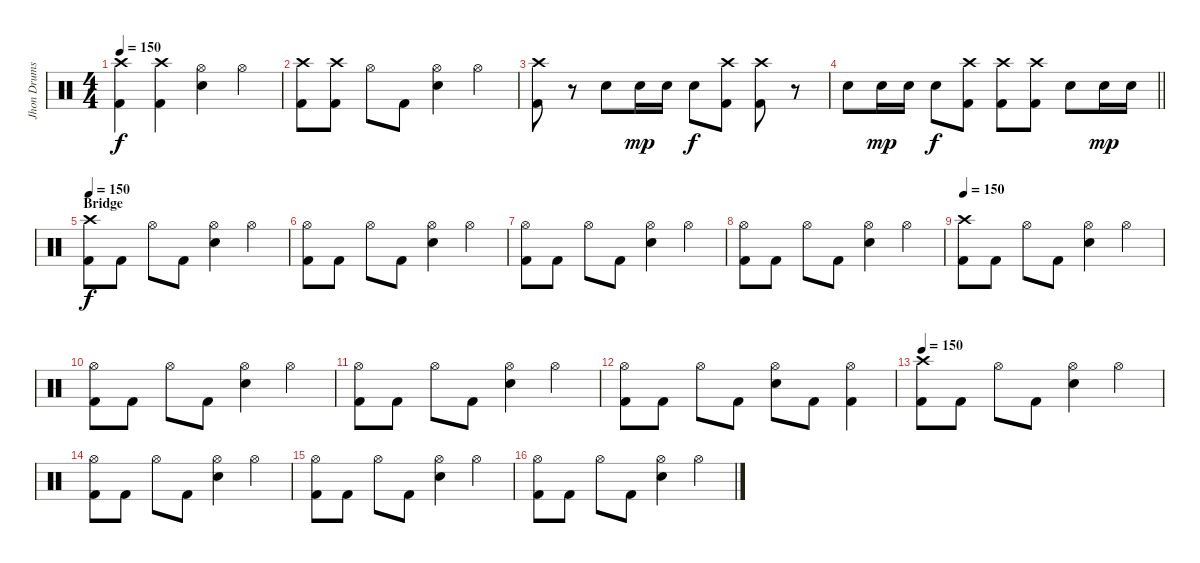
\track ("Jhon Drums" "Jhon Drums") {instrument percussion}
\staff {score}
\articulation defaults
\ts (4 4)
\tempo 150
\clef neutral
\ks c
("Crash high (hit)" "Kick (hit) 2").4{dy f} ("Crash high (hit)" "Kick (hit) 2").4 ("Hi-Hat (open)" "Electric Snare (hit)").4 "Hi-Hat (open)".4 |
("Crash high (hit)" "Kick (hit) 2").8 ("Crash high (hit)" "Kick (hit) 2").8 "Hi-Hat (open)".8 "Kick (hit) 2".8 ("Hi-Hat (open)" "Electric Snare (hit)").4 "Hi-Hat (open)".4 |
("Crash high (hit)" "Kick (hit) 2").8 r.8 "Electric Snare (hit)".8 "Electric Snare (hit)".16{dy mp} "Electric Snare (hit)".16 "Electric Snare (hit)".8{dy f} ("Crash high (hit)" "Kick (hit) 2").8 ("Crash high (hit)" "Kick (hit) 2").8 r.8 |
\barLineRight lightlight "Electric Snare (hit)".8 "Electric Snare (hit)".16{dy mp} "Electric Snare (hit)".16 "Electric Snare (hit)".8{dy f}
("Crash high (hit)" "Kick (hit) 2").8 ("Crash high (hit)" "Kick (hit) 2").8 ("Crash high (hit)" "Kick (hit) 2").8 "Electric Snare (hit)".8 "Electric Snare (hit)".16{dy mp} "Electric Snare (hit)".16 |
\section ("" "Bridge")
\tempo 150
("Crash high (hit)" "Kick (hit) 2").8{dy f} "Kick (hit) 2".8 "Hi-Hat (open)".8 "Kick (hit) 2".8 ("Hi-Hat (open)" "Electric Snare (hit)").4 "Hi-Hat (open)".4 |
("Hi-Hat (open)" "Kick (hit) 2").8 "Kick (hit) 2".8 "Hi-Hat (open)".8 "Kick (hit) 2".8 ("Hi-Hat (open)" "Electric Snare (hit)").4 "Hi-Hat (open)".4 |
("Hi-Hat (open)" "Kick (hit) 2").8 "Kick (hit) 2".8 "Hi-Hat (open)".8 "Kick (hit) 2".8 ("Hi-Hat (open)" "Electric Snare (hit)").4 "Hi-Hat (open)".4 |
("Hi-Hat (open)" "Kick (hit) 2").8 "Kick (hit) 2".8 "Hi-Hat (open)".8 "Kick (hit) 2".8 ("Hi-Hat (open)" "Electric Snare (hit)").4 "Hi-Hat (open)".4 |
\tempo 150
("Crash high (hit)" "Kick (hit) 2").8 "Kick (hit) 2".8 "Hi-Hat (open)".8 "Kick (hit) 2".8 ("Hi-Hat (open)" "Electric Snare (hit)").4 "Hi-Hat (open)".4 |
("Hi-Hat (open)" "Kick (hit) 2").8 "Kick (hit) 2".8 "Hi-Hat (open)".8 "Kick (hit) 2".8 ("Hi-Hat (open)" "Electric Snare (hit)").4 "Hi-Hat (open)".4 |
("Hi-Hat (open)" "Kick (hit) 2").8 "Kick (hit) 2".8 "Hi-Hat (open)".8 "Kick (hit) 2".8 ("Hi-Hat (open)" "Electric Snare (hit)").4 "Hi-Hat (open)".4 |
("Hi-Hat (open)" "Kick (hit) 2").8 "Kick (hit) 2".8 "Hi-Hat (open)".8 "Kick (hit) 2".8 ("Hi-Hat (open)" "Electric Snare (hit)").8 "Kick (hit) 2".8 ("Hi-Hat (open)" "Kick (hit) 2").4 |
\tempo 150
("Crash high (hit)" "Kick (hit) 2").8 "Kick (hit) 2".8 "Hi-Hat (open)".8 "Kick (hit) 2".8 ("Hi-Hat (open)" "Electric Snare (hit)").4 "Hi-Hat (open)".4 |
("Hi-Hat (open)" "Kick (hit) 2").8 "Kick (hit) 2".8 "Hi-Hat (open)".8 "Kick (hit) 2".8 ("Hi-Hat (open)" "Electric Snare (hit)").4 "Hi-Hat (open)".4 |
("Hi-Hat (open)" "Kick (hit) 2").8 "Kick (hit) 2".8 "Hi-Hat (open)".8 "Kick (hit) 2".8 ("Hi-Hat (open)" "Electric Snare (hit)").4 "Hi-Hat (open)".4 |
("Hi-Hat (open)" "Kick (hit) 2").8 "Kick (hit) 2".8 "Hi-Hat (open)".8 "Kick (hit) 2".8 ("Hi-Hat (open)" "Electric Snare (hit)").4 "Hi-Hat (open)".4
